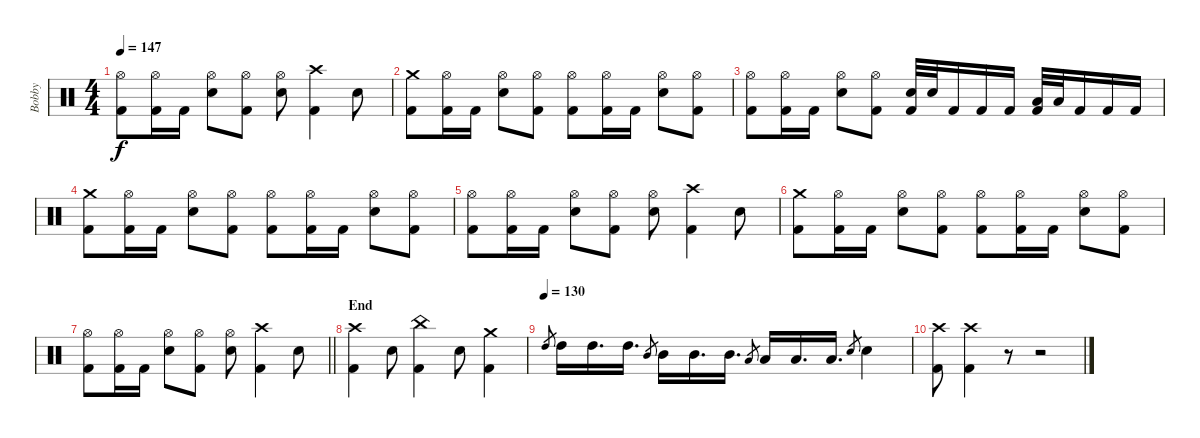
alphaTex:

\track ("Bobby" "Bobby") {instrument percussion}
\staff {score}
\articulation defaults
\ts (4 4)
\tempo 147
\clef neutral
\ks c
("Hi-Hat (open)" "Kick (hit) 2").8{dy f} ("Hi-Hat (open)" "Kick (hit) 2").16 "Kick (hit) 2".16 ("Hi-Hat (open)" "Electric Snare (hit)").8 ("Hi-Hat (open)" "Kick (hit) 2").8 ("Hi-Hat (open)" "Electric Snare (hit)").8 ("Crash high (hit)" "Kick (hit) 2").4 "Electric Snare (hit)".8 |
("Crash medium (hit)" "Kick (hit) 2").8 ("Hi-Hat (open)" "Kick (hit) 2").16 "Kick (hit) 2".16 ("Hi-Hat (open)" "Electric Snare (hit)").8 ("Hi-Hat (open)" "Kick (hit) 2").8 ("Hi-Hat (open)" "Kick (hit) 2").8 ("Hi-Hat (open)" "Kick (hit) 2").16 "Kick (hit) 2".16 ("Hi-Hat (open)" "Electric Snare (hit)").8 ("Hi-Hat (open)" "Kick (hit) 2").8 |
("Hi-Hat (open)" "Kick (hit) 2").8 ("Hi-Hat (open)" "Kick (hit) 2").16 "Kick (hit) 2".16 ("Hi-Hat (open)" "Electric Snare (hit)").8 ("Hi-Hat (open)" "Kick (hit) 2").8 ("Electric Snare (hit)" "Kick (hit) 2").32 "Electric Snare (hit)".32 "Kick (hit) 2".16 "Kick (hit) 2".16 "Kick (hit) 2".16 ("Low Tom (hit)" "Kick (hit) 2").32 "Low Tom (hit)".32 "Kick (hit) 2".16 "Kick (hit) 2".16 "Kick (hit) 2".16 |
("Crash medium (hit)" "Kick (hit) 2").8 ("Hi-Hat (open)" "Kick (hit) 2").16 "Kick (hit) 2".16 ("Hi-Hat (open)" "Electric Snare (hit)").8 ("Hi-Hat (open)" "Kick (hit) 2").8 ("Hi-Hat (open)" "Kick (hit) 2").8 ("Hi-Hat (open)" "Kick (hit) 2").16 "Kick (hit) 2".16 ("Hi-Hat (open)" "Electric Snare (hit)").8 ("Hi-Hat (open)" "Kick (hit) 2").8 |
("Hi-Hat (open)" "Kick (hit) 2").8 ("Hi-Hat (open)" "Kick (hit) 2").16 "Kick (hit) 2".16 ("Hi-Hat (open)" "Electric Snare (hit)").8 ("Hi-Hat (open)" "Kick (hit) 2").8 ("Hi-Hat (open)" "Electric Snare (hit)").8 ("Crash high (hit)" "Kick (hit) 2").4 "Electric Snare (hit)".8 |
("Crash medium (hit)" "Kick (hit) 2").8 ("Hi-Hat (open)" "Kick (hit) 2").16 "Kick (hit) 2".16 ("Hi-Hat (open)" "Electric Snare (hit)").8 ("Hi-Hat (open)" "Kick (hit) 2").8 ("Hi-Hat (open)" "Kick (hit) 2").8 ("Hi-Hat (open)" "Kick (hit) 2").16 "Kick (hit) 2".16 ("Hi-Hat (open)" "Electric Snare (hit)").8 ("Hi-Hat (open)" "Kick (hit) 2").8 |
\barLineRight lightlight
("Hi-Hat (open)" "Kick (hit) 2").8 ("Hi-Hat (open)" "Kick (hit) 2").16 "Kick (hit) 2".16 ("Hi-Hat (open)" "Electric Snare (hit)").8 ("Hi-Hat (open)" "Kick (hit) 2").8 ("Hi-Hat (open)" "Electric Snare (hit)").8 ("Crash high (hit)" "Kick (hit) 2").4 "Electric Snare (hit)".8 |
\section ("" "End")
("Crash high (hit)" "Kick (hit) 2").4 "Electric Snare (hit)".8 ("China (hit)" "Kick (hit) 2").4 "Electric Snare (hit)".8 ("Crash medium (hit)" "Kick (hit) 2").4 |
\tempo (130)
"High Tom (hit)".8{gr} "High Tom (hit)".16 "High Tom (hit)".16{d} "High Tom (hit)".16{d} "Mid Tom (hit)".8{gr} "Mid Tom (hit)".16 "Mid Tom (hit)".16{d} "Mid Tom (hit)".16{d} "Low Tom (hit)".8{gr} "Low Tom (hit)".16 "Low Tom (hit)".16{d} "Low Tom (hit)".16{d} "Electric Snare (hit)".8{gr} "Electric Snare (hit)".4 |
("Crash high (hit)" "Kick (hit) 2").8 ("Crash high (hit)" "Kick (hit) 2").4 r.8 r.2
